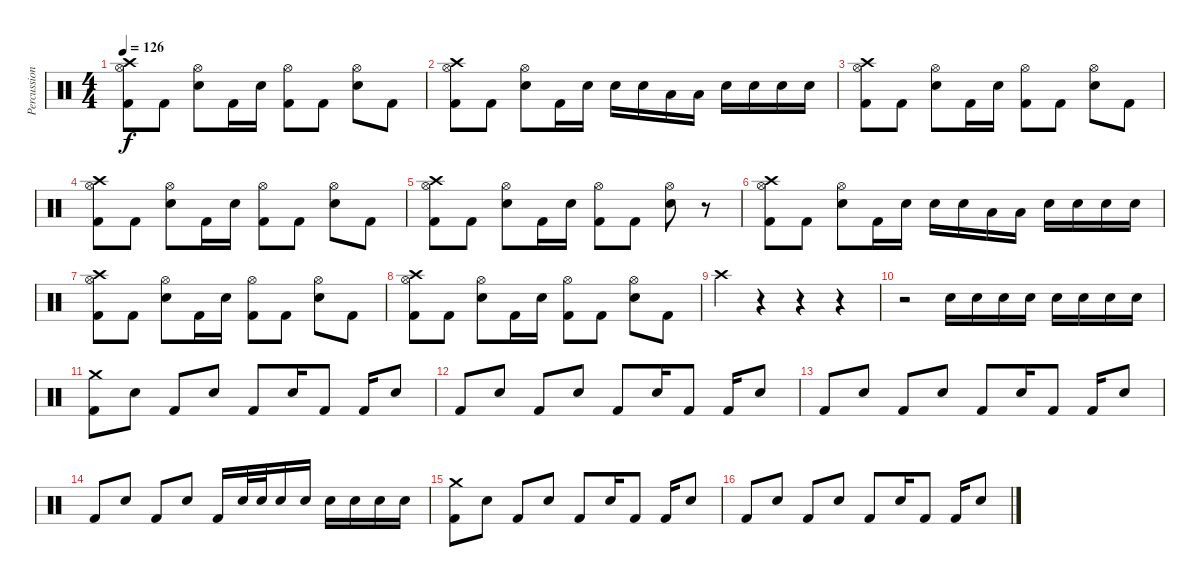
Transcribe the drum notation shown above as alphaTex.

\track ("Percussion" "Percussion") {instrument percussion}
\staff {score}
\articulation defaults
\ts (4 4)
\tempo 126
\clef neutral
\ks c
("Crash high (hit)" "Hi-Hat (open)" "Kick (hit) 2").8{dy f} "Kick (hit) 2".8 ("Hi-Hat (open)" "Electric Snare (hit)").8 "Kick (hit) 2".16 "Electric Snare (hit)".16 ("Hi-Hat (open)" "Kick (hit) 2").8 "Kick (hit) 2".8 ("Hi-Hat (open)" "Electric Snare (hit)").8 "Kick (hit) 2".8 |
("Crash high (hit)" "Hi-Hat (open)" "Kick (hit) 2").8 "Kick (hit) 2".8 ("Hi-Hat (open)" "Electric Snare (hit)").8 "Kick (hit) 2".16 "Electric Snare (hit)".16 "Electric Snare (hit)".16 "Electric Snare (hit)".16 "Low Tom (hit)".16 "Low Tom (hit)".16 "Electric Snare (hit)".16 "Electric Snare (hit)".16 "Electric Snare (hit)".16 "Electric Snare (hit)".16 |
("Crash high (hit)" "Hi-Hat (open)" "Kick (hit) 2").8 "Kick (hit) 2".8 ("Hi-Hat (open)" "Electric Snare (hit)").8 "Kick (hit) 2".16 "Electric Snare (hit)".16 ("Hi-Hat (open)" "Kick (hit) 2").8 "Kick (hit) 2".8 ("Hi-Hat (open)" "Electric Snare (hit)").8 "Kick (hit) 2".8 |
("Crash high (hit)" "Hi-Hat (open)" "Kick (hit) 2").8 "Kick (hit) 2".8 ("Hi-Hat (open)" "Electric Snare (hit)").8 "Kick (hit) 2".16 "Electric Snare (hit)".16 ("Hi-Hat (open)" "Kick (hit) 2").8 "Kick (hit) 2".8 ("Hi-Hat (open)" "Electric Snare (hit)").8 "Kick (hit) 2".8 |
("Crash high (hit)" "Hi-Hat (open)" "Kick (hit) 2").8 "Kick (hit) 2".8 ("Hi-Hat (open)" "Electric Snare (hit)").8 "Kick (hit) 2".16 "Electric Snare (hit)".16 ("Hi-Hat (open)" "Kick (hit) 2").8 "Kick (hit) 2".8 ("Hi-Hat (open)" "Electric Snare (hit)").8 r.8 |
("Crash high (hit)" "Hi-Hat (open)" "Kick (hit) 2").8 "Kick (hit) 2".8 ("Hi-Hat (open)" "Electric Snare (hit)").8 "Kick (hit) 2".16 "Electric Snare (hit)".16 "Electric Snare (hit)".16 "Electric Snare (hit)".16 "Low Tom (hit)".16 "Low Tom (hit)".16 "Electric Snare (hit)".16 "Electric Snare (hit)".16 "Electric Snare (hit)".16 "Electric Snare (hit)".16 |
("Crash high (hit)" "Hi-Hat (open)" "Kick (hit) 2").8 "Kick (hit) 2".8 ("Hi-Hat (open)" "Electric Snare (hit)").8 "Kick (hit) 2".16 "Electric Snare (hit)".16 ("Hi-Hat (open)" "Kick (hit) 2").8 "Kick (hit) 2".8 ("Hi-Hat (open)" "Electric Snare (hit)").8 "Kick (hit) 2".8 |
("Crash high (hit)" "Hi-Hat (open)" "Kick (hit) 2").8 "Kick (hit) 2".8 ("Hi-Hat (open)" "Electric Snare (hit)").8 "Kick (hit) 2".16 "Electric Snare (hit)".16 ("Hi-Hat (open)" "Kick (hit) 2").8 "Kick (hit) 2".8 ("Hi-Hat (open)" "Electric Snare (hit)").8 "Kick (hit) 2".8 |
"Crash high (hit)".4 r.4 r.4 r.4 |
r.2 "Electric Snare (hit)".16 "Electric Snare (hit)".16 "Electric Snare (hit)".16 "Electric Snare (hit)".16 "Electric Snare (hit)".16 "Electric Snare (hit)".16 "Electric Snare (hit)".16 "Electric Snare (hit)".16 |
("Crash medium (hit)" "Kick (hit) 2").8 "Electric Snare (hit)".8 "Kick (hit) 2".8 "Electric Snare (hit)".8 "Kick (hit) 2".8 "Electric Snare (hit)".16 "Kick (hit) 2".8 "Kick (hit) 2".16 "Electric Snare (hit)".8 |
"Kick (hit) 2".8 "Electric Snare (hit)".8 "Kick (hit) 2".8 "Electric Snare (hit)".8 "Kick (hit) 2".8 "Electric Snare (hit)".16 "Kick (hit) 2".8 "Kick (hit) 2".16 "Electric Snare (hit)".8 |
"Kick (hit) 2".8 "Electric Snare (hit)".8 "Kick (hit) 2".8 "Electric Snare (hit)".8 "Kick (hit) 2".8 "Electric Snare (hit)".16 "Kick (hit) 2".8 "Kick (hit) 2".16 "Electric Snare (hit)".8 |
"Kick (hit) 2".8 "Electric Snare (hit)".8 "Kick (hit) 2".8 "Electric Snare (hit)".8 "Kick (hit) 2".16 "Electric Snare (hit)".32 "Electric Snare (hit)".32 "Electric Snare (hit)".16 "Electric Snare (hit)".16 "Electric Snare (hit)".16 "Electric Snare (hit)".16 "Electric Snare (hit)".16 "Electric Snare (hit)".16 |
("Crash medium (hit)" "Kick (hit) 2").8 "Electric Snare (hit)".8 "Kick (hit) 2".8 "Electric Snare (hit)".8 "Kick (hit) 2".8 "Electric Snare (hit)".16 "Kick (hit) 2".8 "Kick (hit) 2".16 "Electric Snare (hit)".8 |
"Kick (hit) 2".8 "Electric Snare (hit)".8 "Kick (hit) 2".8 "Electric Snare (hit)".8 "Kick (hit) 2".8 "Electric Snare (hit)".16 "Kick (hit) 2".8 "Kick (hit) 2".16 "Electric Snare (hit)".8
